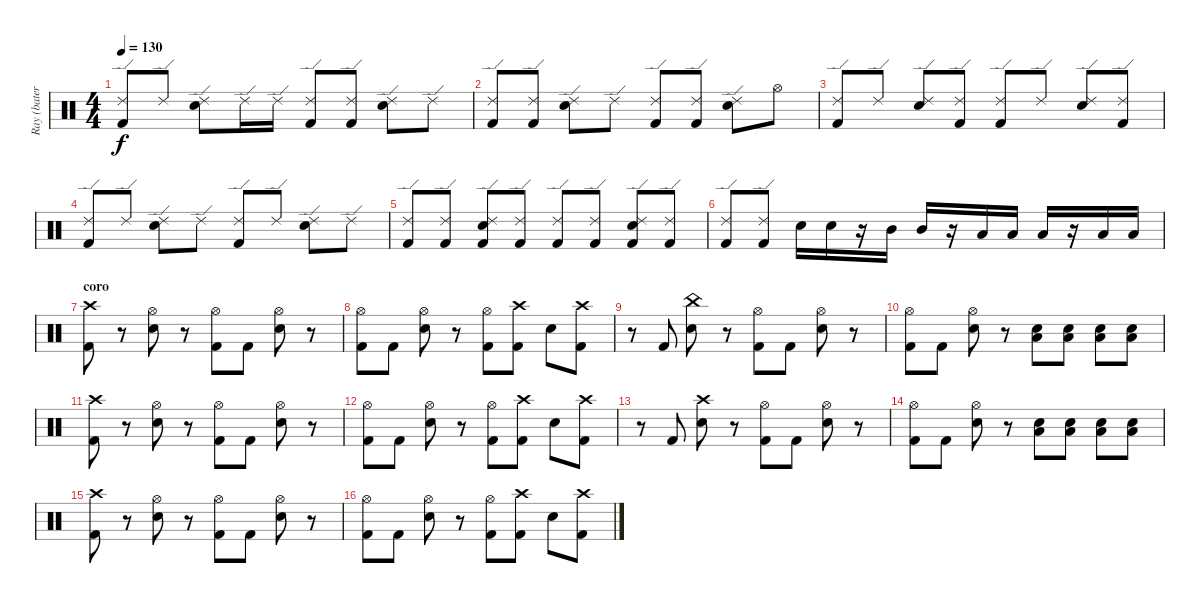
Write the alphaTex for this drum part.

\track ("Ray (batería)" "Ray (bater") {instrument percussion}
\staff {score}
\articulation defaults
\ts (4 4)
\tempo 130
\clef neutral
\ks c
("Ride (edge) 2" "Kick (hit) 2").8{dy f} "Ride (edge) 2".8 ("Ride (edge) 2" "Snare (hit) 2").8 "Ride (edge) 2".16 "Ride (edge) 2".16 ("Ride (edge) 2" "Kick (hit) 2").8 ("Ride (edge) 2" "Kick (hit) 2").8 ("Ride (edge) 2" "Snare (hit) 2").8 "Ride (edge) 2".8 |
("Ride (edge) 2" "Kick (hit) 2").8 ("Ride (edge) 2" "Kick (hit) 2").8 ("Ride (edge) 2" "Snare (hit) 2").8 "Ride (edge) 2".8 ("Ride (edge) 2" "Kick (hit) 2").8 ("Ride (edge) 2" "Kick (hit) 2").8 ("Ride (edge) 2" "Snare (hit) 2").8 "Hi-Hat (open)".8 |
("Ride (edge) 2" "Kick (hit) 2").8 "Ride (edge) 2".8 ("Ride (edge) 2" "Snare (hit) 2").8 ("Ride (edge) 2" "Kick (hit) 2").8 ("Ride (edge) 2" "Kick (hit) 2").8 "Ride (edge) 2".8 ("Ride (edge) 2" "Snare (hit) 2").8 ("Ride (edge) 2" "Kick (hit) 2").8 |
("Ride (edge) 2" "Kick (hit) 2").8 "Ride (edge) 2".8 ("Ride (edge) 2" "Snare (hit) 2").8 "Ride (edge) 2".8 ("Ride (edge) 2" "Kick (hit) 2").8 "Ride (edge) 2".8 ("Ride (edge) 2" "Snare (hit) 2").8 "Ride (edge) 2".8 |
("Ride (edge) 2" "Kick (hit) 2").8 ("Ride (edge) 2" "Kick (hit) 2").8 ("Ride (edge) 2" "Snare (hit) 2" "Kick (hit) 2").8 ("Ride (edge) 2" "Kick (hit) 2").8 ("Ride (edge) 2" "Kick (hit) 2").8 ("Ride (edge) 2" "Kick (hit) 2").8 ("Ride (edge) 2" "Snare (hit) 2" "Kick (hit) 2").8 ("Ride (edge) 2" "Kick (hit) 2").8 |
("Ride (edge) 2" "Kick (hit) 2").8 ("Ride (edge) 2" "Kick (hit) 2").8 "Snare (hit) 2".16 "Snare (hit) 2".16 r.16 "Mid Tom (hit)".16 "Mid Tom (hit)".16 r.16 "Low Tom (hit)".16 "Low Tom (hit)".16 "Low Floor Tom (hit)".16 r.16 "Low Floor Tom (hit)".16 "Low Floor Tom (hit)".16 |
\section ("" "coro")
("Crash high (hit)" "Kick (hit) 2").8 r.8 ("Hi-Hat (open)" "Snare (hit) 2").8 r.8 ("Hi-Hat (open)" "Kick (hit) 2").8 "Kick (hit) 2".8 ("Hi-Hat (open)" "Snare (hit) 2").8 r.8 |
("Hi-Hat (open)" "Kick (hit) 2").8 "Kick (hit) 2".8 ("Hi-Hat (open)" "Snare (hit) 2").8 r.8 ("Hi-Hat (open)" "Kick (hit) 2").8 ("Crash high (hit)" "Kick (hit) 2").8 "Snare (hit) 2".8 ("Crash high (hit)" "Kick (hit) 2").8 |
r.8 "Kick (hit) 2".8 ("China (hit)" "Snare (hit) 2").8 r.8 ("Hi-Hat (open)" "Kick (hit) 2").8 "Kick (hit) 2".8 ("Hi-Hat (open)" "Snare (hit) 2").8 r.8 |
("Hi-Hat (open)" "Kick (hit) 2").8 "Kick (hit) 2".8 ("Hi-Hat (open)" "Snare (hit) 2").8 r.8 ("Snare (hit) 2" "Low Tom (hit)").8 ("Snare (hit) 2" "Low Tom (hit)").8 ("Snare (hit) 2" "Low Tom (hit)").8 ("Snare (hit) 2" "Low Tom (hit)").8 |
("Crash high (hit)" "Kick (hit) 2").8 r.8 ("Hi-Hat (open)" "Snare (hit) 2").8 r.8 ("Hi-Hat (open)" "Kick (hit) 2").8 "Kick (hit) 2".8 ("Hi-Hat (open)" "Snare (hit) 2").8 r.8 |
("Hi-Hat (open)" "Kick (hit) 2").8 "Kick (hit) 2".8 ("Hi-Hat (open)" "Snare (hit) 2").8 r.8 ("Hi-Hat (open)" "Kick (hit) 2").8 ("Crash high (hit)" "Kick (hit) 2").8 "Snare (hit) 2".8 ("Crash high (hit)" "Kick (hit) 2").8 |
r.8 "Kick (hit) 2".8 ("Crash high (hit)" "Snare (hit) 2").8 r.8 ("Hi-Hat (open)" "Kick (hit) 2").8 "Kick (hit) 2".8 ("Hi-Hat (open)" "Snare (hit) 2").8 r.8 |
("Hi-Hat (open)" "Kick (hit) 2").8 "Kick (hit) 2".8 ("Hi-Hat (open)" "Snare (hit) 2").8 r.8 ("Snare (hit) 2" "Low Tom (hit)").8 ("Snare (hit) 2" "Low Tom (hit)").8 ("Snare (hit) 2" "Low Tom (hit)").8 ("Snare (hit) 2" "Low Tom (hit)").8 |
("Crash high (hit)" "Kick (hit) 2").8 r.8 ("Hi-Hat (open)" "Snare (hit) 2").8 r.8 ("Hi-Hat (open)" "Kick (hit) 2").8 "Kick (hit) 2".8 ("Hi-Hat (open)" "Snare (hit) 2").8 r.8 |
("Hi-Hat (open)" "Kick (hit) 2").8 "Kick (hit) 2".8 ("Hi-Hat (open)" "Snare (hit) 2").8 r.8 ("Hi-Hat (open)" "Kick (hit) 2").8 ("Crash high (hit)" "Kick (hit) 2").8 "Snare (hit) 2".8 ("Crash high (hit)" "Kick (hit) 2").8
